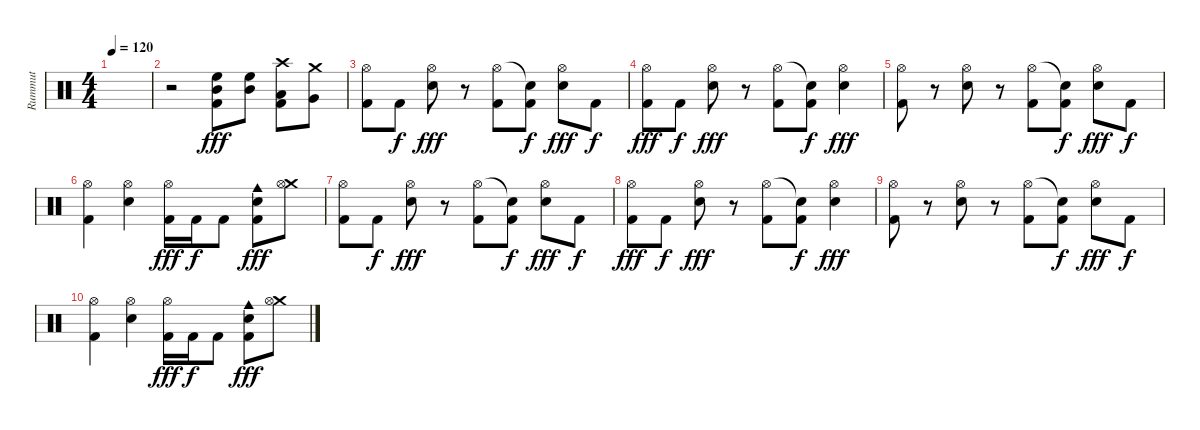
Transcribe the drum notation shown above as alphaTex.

\track ("Rummut" "Rummut") {instrument percussion}
\staff {score}
\articulation defaults
\ts (4 4)
\tempo 120
\clef neutral
\ks c
|
r.2 ("Mid Tom (hit)" "High Floor Tom (hit)" "Kick (hit) 2").8{dy fff} ("Mid Tom (hit)" "High Floor Tom (hit)").8 ("Low Tom (hit)" "Kick (hit) 2" "Crash high (hit)").8 ("Very Low Tom (hit)" "Crash medium (hit)").8 |
("Hi-Hat (open)" "Kick (hit) 2").8 "Kick (hit) 2".8{dy f} ("Hi-Hat (open)" "Snare (hit) 2").8{dy fff} r.8 ("Hi-Hat (open)" "Kick (hit) 2").8 ("Snare (hit)"{t} "Kick (hit) 2").8{dy f} ("Hi-Hat (open)" "Snare (hit) 2").8{dy fff} "Kick (hit) 2".8{dy f} |
("Hi-Hat (open)" "Kick (hit) 2").8{dy fff} "Kick (hit) 2".8{dy f} ("Hi-Hat (open)" "Snare (hit) 2").8{dy fff} r.8 ("Hi-Hat (open)" "Kick (hit) 2").8 ("Snare (hit)"{t} "Kick (hit) 2").8{dy f} ("Hi-Hat (open)" "Snare (hit) 2").4{dy fff} |
("Hi-Hat (open)" "Kick (hit) 2").8 r.8 ("Hi-Hat (open)" "Snare (hit) 2").8 r.8 ("Hi-Hat (open)" "Kick (hit) 2").8 ("Snare (hit)"{t} "Kick (hit) 2").8{dy f} ("Hi-Hat (open)" "Snare (hit) 2").8{dy fff} "Kick (hit) 2".8{dy f} |
("Hi-Hat (open)" "Kick (hit) 2").4 ("Hi-Hat (open)" "Snare (hit) 2").4 ("Hi-Hat (open)" "Kick (hit) 2").16{dy fff} "Kick (hit) 2".16{dy f} "Kick (hit) 2".8 ("Cowbell medium (hit)" "Snare (hit) 2" "Kick (hit) 2").8{dy fff} ("Crash medium (hit)" "Hi-Hat (open)").8 |
("Hi-Hat (open)" "Kick (hit) 2").8 "Kick (hit) 2".8{dy f} ("Hi-Hat (open)" "Snare (hit) 2").8{dy fff} r.8 ("Hi-Hat (open)" "Kick (hit) 2").8 ("Snare (hit)"{t} "Kick (hit) 2").8{dy f} ("Hi-Hat (open)" "Snare (hit) 2").8{dy fff} "Kick (hit) 2".8{dy f} |
("Hi-Hat (open)" "Kick (hit) 2").8{dy fff} "Kick (hit) 2".8{dy f} ("Hi-Hat (open)" "Snare (hit) 2").8{dy fff} r.8 ("Hi-Hat (open)" "Kick (hit) 2").8 ("Snare (hit)"{t} "Kick (hit) 2").8{dy f} ("Hi-Hat (open)" "Snare (hit) 2").4{dy fff} |
("Hi-Hat (open)" "Kick (hit) 2").8 r.8 ("Hi-Hat (open)" "Snare (hit) 2").8 r.8 ("Hi-Hat (open)" "Kick (hit) 2").8 ("Snare (hit)"{t} "Kick (hit) 2").8{dy f} ("Hi-Hat (open)" "Snare (hit) 2").8{dy fff} "Kick (hit) 2".8{dy f} |
("Hi-Hat (open)" "Kick (hit) 2").4 ("Hi-Hat (open)" "Snare (hit) 2").4 ("Hi-Hat (open)" "Kick (hit) 2").16{dy fff} "Kick (hit) 2".16{dy f} "Kick (hit) 2".8 ("Cowbell medium (hit)" "Snare (hit) 2" "Kick (hit) 2").8{dy fff} ("Crash medium (hit)" "Hi-Hat (open)").8
